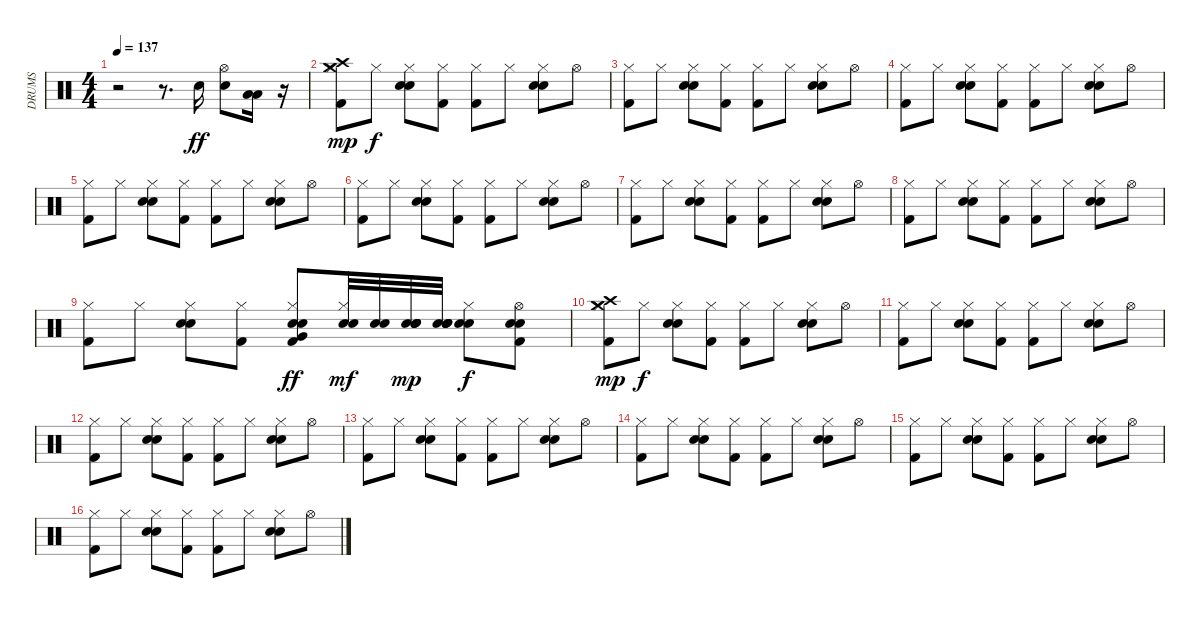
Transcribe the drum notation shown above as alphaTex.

\track ("DRUMS" "DRUMS") {instrument percussion}
\staff {score}
\articulation defaults
\ts (4 4)
\tempo 137
\clef neutral
\ks c
r.2{dy ff} r.8{d} "Snare (hit) 2".16 ("Hi-Hat (open)" "Snare (hit) 2").8 ("Low Floor Tom (hit)" "Low Tom (hit)").16 r.16 |
("Hi-Hat (closed)" "Crash high (hit)" "Crash medium (hit)" "Kick (hit) 2").8{dy mp} "Hi-Hat (closed)".8{dy f} ("Hi-Hat (closed)" "Electric Snare (hit)" "Snare (hit) 2").8 ("Hi-Hat (closed)" "Kick (hit) 2").8 ("Hi-Hat (closed)" "Kick (hit) 2").8 "Hi-Hat (closed)".8 ("Hi-Hat (closed)" "Electric Snare (hit)" "Snare (hit) 2").8 "Hi-Hat (open)".8 |
("Hi-Hat (closed)" "Kick (hit) 2").8 "Hi-Hat (closed)".8 ("Hi-Hat (closed)" "Electric Snare (hit)" "Snare (hit) 2").8 ("Hi-Hat (closed)" "Kick (hit) 2").8 ("Hi-Hat (closed)" "Kick (hit) 2").8 "Hi-Hat (closed)".8 ("Hi-Hat (closed)" "Electric Snare (hit)" "Snare (hit) 2").8 "Hi-Hat (open)".8 |
("Hi-Hat (closed)" "Kick (hit) 2").8 "Hi-Hat (closed)".8 ("Electric Snare (hit)" "Snare (hit) 2" "Hi-Hat (closed)").8 ("Hi-Hat (closed)" "Kick (hit) 2").8 ("Hi-Hat (closed)" "Kick (hit) 2").8 "Hi-Hat (closed)".8 ("Electric Snare (hit)" "Snare (hit) 2" "Hi-Hat (closed)").8 "Hi-Hat (open)".8 |
("Hi-Hat (closed)" "Kick (hit) 2").8 "Hi-Hat (closed)".8 ("Electric Snare (hit)" "Snare (hit) 2" "Hi-Hat (closed)").8 ("Hi-Hat (closed)" "Kick (hit) 2").8 ("Hi-Hat (closed)" "Kick (hit) 2").8 "Hi-Hat (closed)".8 ("Electric Snare (hit)" "Snare (hit) 2" "Hi-Hat (closed)").8 "Hi-Hat (open)".8 |
("Hi-Hat (closed)" "Kick (hit) 2").8 "Hi-Hat (closed)".8 ("Electric Snare (hit)" "Snare (hit) 2" "Hi-Hat (closed)").8 ("Hi-Hat (closed)" "Kick (hit) 2").8 ("Hi-Hat (closed)" "Kick (hit) 2").8 "Hi-Hat (closed)".8 ("Electric Snare (hit)" "Snare (hit) 2" "Hi-Hat (closed)").8 "Hi-Hat (open)".8 |
("Hi-Hat (closed)" "Kick (hit) 2").8 "Hi-Hat (closed)".8 ("Electric Snare (hit)" "Snare (hit) 2" "Hi-Hat (closed)").8 ("Hi-Hat (closed)" "Kick (hit) 2").8 ("Hi-Hat (closed)" "Kick (hit) 2").8 "Hi-Hat (closed)".8 ("Electric Snare (hit)" "Snare (hit) 2" "Hi-Hat (closed)").8 "Hi-Hat (open)".8 |
("Hi-Hat (closed)" "Kick (hit) 2").8 "Hi-Hat (closed)".8 ("Electric Snare (hit)" "Snare (hit) 2" "Hi-Hat (closed)").8 ("Hi-Hat (closed)" "Kick (hit) 2").8 ("Hi-Hat (closed)" "Kick (hit) 2").8 "Hi-Hat (closed)".8 ("Electric Snare (hit)" "Snare (hit) 2" "Hi-Hat (closed)").8 "Hi-Hat (open)".8 |
("Hi-Hat (closed)" "Kick (hit) 2").8 "Hi-Hat (closed)".8 ("Snare (hit) 2" "Electric Snare (hit)" "Hi-Hat (closed)").8 ("Hi-Hat (closed)" "Kick (hit) 2").8 ("Snare (hit) 2" "Very Low Tom (hit)" "Electric Snare (hit)" "Hi-Hat (closed)" "Kick (hit) 2").8{dy ff} ("Electric Snare (hit)" "Hi-Hat (closed)" "Snare (hit) 2").32{dy mf} ("Electric Snare (hit)" "Snare (hit) 2").32 ("Electric Snare (hit)" "Snare (hit) 2" "Electric Snare (hit)" "Snare (hit) 2").32{dy mp} ("Electric Snare (hit)" "Snare (hit) 2" "Electric Snare (hit)" "Snare (hit) 2").32 ("Snare (hit) 2" "Electric Snare (hit)" "Hi-Hat (closed)").8{dy f} ("Snare (hit) 2" "Electric Snare (hit)" "Hi-Hat (open)" "Kick (hit) 2").8 |
("Hi-Hat (closed)" "Crash high (hit)" "Crash medium (hit)" "Kick (hit) 2").8{dy mp} "Hi-Hat (closed)".8{dy f} ("Hi-Hat (closed)" "Electric Snare (hit)" "Snare (hit) 2").8 ("Hi-Hat (closed)" "Kick (hit) 2").8 ("Hi-Hat (closed)" "Kick (hit) 2").8 "Hi-Hat (closed)".8 ("Hi-Hat (closed)" "Electric Snare (hit)" "Snare (hit) 2").8 "Hi-Hat (open)".8 |
("Hi-Hat (closed)" "Kick (hit) 2").8 "Hi-Hat (closed)".8 ("Hi-Hat (closed)" "Electric Snare (hit)" "Snare (hit) 2").8 ("Hi-Hat (closed)" "Kick (hit) 2").8 ("Hi-Hat (closed)" "Kick (hit) 2").8 "Hi-Hat (closed)".8 ("Hi-Hat (closed)" "Electric Snare (hit)" "Snare (hit) 2").8 "Hi-Hat (open)".8 |
("Hi-Hat (closed)" "Kick (hit) 2").8 "Hi-Hat (closed)".8 ("Hi-Hat (closed)" "Electric Snare (hit)" "Snare (hit) 2").8 ("Hi-Hat (closed)" "Kick (hit) 2").8 ("Hi-Hat (closed)" "Kick (hit) 2").8 "Hi-Hat (closed)".8 ("Hi-Hat (closed)" "Electric Snare (hit)" "Snare (hit) 2").8 "Hi-Hat (open)".8 |
("Hi-Hat (closed)" "Kick (hit) 2").8 "Hi-Hat (closed)".8 ("Hi-Hat (closed)" "Electric Snare (hit)" "Snare (hit) 2").8 ("Hi-Hat (closed)" "Kick (hit) 2").8 ("Hi-Hat (closed)" "Kick (hit) 2").8 "Hi-Hat (closed)".8 ("Hi-Hat (closed)" "Electric Snare (hit)" "Snare (hit) 2").8 "Hi-Hat (open)".8 |
("Hi-Hat (closed)" "Kick (hit) 2").8 "Hi-Hat (closed)".8 ("Hi-Hat (closed)" "Electric Snare (hit)" "Snare (hit) 2").8 ("Hi-Hat (closed)" "Kick (hit) 2").8 ("Hi-Hat (closed)" "Kick (hit) 2").8 "Hi-Hat (closed)".8 ("Hi-Hat (closed)" "Electric Snare (hit)" "Snare (hit) 2").8 "Hi-Hat (open)".8 |
("Hi-Hat (closed)" "Kick (hit) 2").8 "Hi-Hat (closed)".8 ("Hi-Hat (closed)" "Electric Snare (hit)" "Snare (hit) 2").8 ("Hi-Hat (closed)" "Kick (hit) 2").8 ("Hi-Hat (closed)" "Kick (hit) 2").8 "Hi-Hat (closed)".8 ("Hi-Hat (closed)" "Electric Snare (hit)" "Snare (hit) 2").8 "Hi-Hat (open)".8 |
("Hi-Hat (closed)" "Kick (hit) 2").8 "Hi-Hat (closed)".8 ("Hi-Hat (closed)" "Electric Snare (hit)" "Snare (hit) 2").8 ("Hi-Hat (closed)" "Kick (hit) 2").8 ("Hi-Hat (closed)" "Kick (hit) 2").8 "Hi-Hat (closed)".8 ("Hi-Hat (closed)" "Electric Snare (hit)" "Snare (hit) 2").8 "Hi-Hat (open)".8
